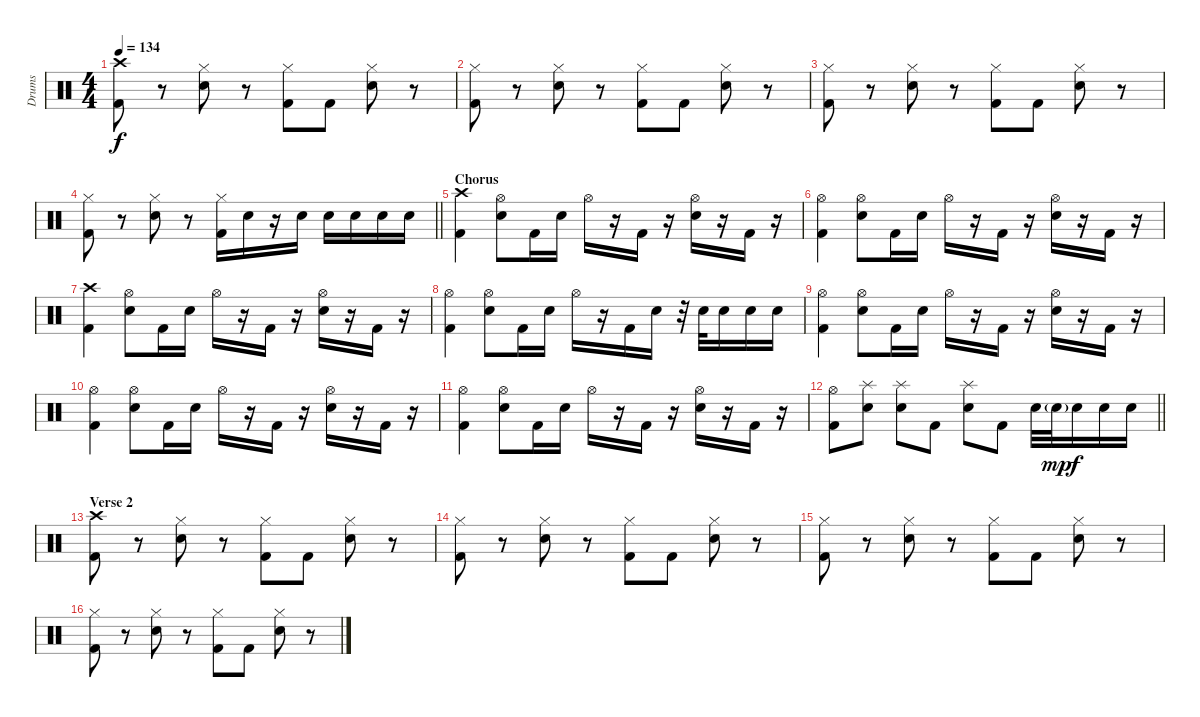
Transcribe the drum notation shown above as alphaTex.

\track ("Drums" "Drums") {instrument percussion}
\staff {score}
\articulation defaults
\ts (4 4)
\tempo 134
\clef neutral
\ks c
("Crash high (hit)" "Kick (hit) 2").8{dy f} r.8 ("Hi-Hat (closed)" "Electric Snare (hit)").8 r.8 ("Hi-Hat (closed)" "Kick (hit) 2").8 "Kick (hit) 2".8 ("Hi-Hat (closed)" "Electric Snare (hit)").8 r.8 |
("Hi-Hat (closed)" "Kick (hit) 2").8 r.8 ("Hi-Hat (closed)" "Electric Snare (hit)").8 r.8 ("Hi-Hat (closed)" "Kick (hit) 2").8 "Kick (hit) 2".8 ("Hi-Hat (closed)" "Electric Snare (hit)").8 r.8 |
("Hi-Hat (closed)" "Kick (hit) 2").8 r.8 ("Hi-Hat (closed)" "Electric Snare (hit)").8 r.8 ("Hi-Hat (closed)" "Kick (hit) 2").8 "Kick (hit) 2".8 ("Hi-Hat (closed)" "Electric Snare (hit)").8 r.8 |
\barLineRight lightlight
("Hi-Hat (closed)" "Kick (hit) 2").8 r.8 ("Hi-Hat (closed)" "Electric Snare (hit)").8 r.8 ("Hi-Hat (closed)" "Kick (hit) 2").16 "Electric Snare (hit)".16 r.16 "Electric Snare (hit)".16 "Electric Snare (hit)".16 "Electric Snare (hit)".16 "Electric Snare (hit)".16 "Electric Snare (hit)".16 |
\section ("" "Chorus")
("Crash high (hit)" "Kick (hit) 2").4 ("Hi-Hat (open)" "Electric Snare (hit)").8 "Kick (hit) 2".16 "Electric Snare (hit)".16 "Hi-Hat (open)".16 r.16 "Kick (hit) 2".16 r.16 ("Hi-Hat (open)" "Electric Snare (hit)").16 r.16 "Kick (hit) 2".16 r.16 |
("Hi-Hat (open)" "Kick (hit) 2").4 ("Hi-Hat (open)" "Electric Snare (hit)").8 "Kick (hit) 2".16 "Electric Snare (hit)".16 "Hi-Hat (open)".16 r.16 "Kick (hit) 2".16 r.16 ("Hi-Hat (open)" "Electric Snare (hit)").16 r.16 "Kick (hit) 2".16 r.16 |
("Crash high (hit)" "Kick (hit) 2").4 ("Hi-Hat (open)" "Electric Snare (hit)").8 "Kick (hit) 2".16 "Electric Snare (hit)".16 "Hi-Hat (open)".16 r.16 "Kick (hit) 2".16 r.16 ("Hi-Hat (open)" "Electric Snare (hit)").16 r.16 "Kick (hit) 2".16 r.16 |
("Hi-Hat (open)" "Kick (hit) 2").4 ("Hi-Hat (open)" "Electric Snare (hit)").8 "Kick (hit) 2".16 "Electric Snare (hit)".16 "Hi-Hat (open)".16 r.16 "Kick (hit) 2".16 "Electric Snare (hit)".16 r.32 "Electric Snare (hit)".32 "Electric Snare (hit)".16 "Electric Snare (hit)".16 "Electric Snare (hit)".16 |
("Hi-Hat (open)" "Kick (hit) 2").4 ("Hi-Hat (open)" "Electric Snare (hit)").8 "Kick (hit) 2".16 "Electric Snare (hit)".16 "Hi-Hat (open)".16 r.16 "Kick (hit) 2".16 r.16 ("Hi-Hat (open)" "Electric Snare (hit)").16 r.16 "Kick (hit) 2".16 r.16 |
("Hi-Hat (open)" "Kick (hit) 2").4 ("Hi-Hat (open)" "Electric Snare (hit)").8 "Kick (hit) 2".16 "Electric Snare (hit)".16 "Hi-Hat (open)".16 r.16 "Kick (hit) 2".16 r.16 ("Hi-Hat (open)" "Electric Snare (hit)").16 r.16 "Kick (hit) 2".16 r.16 |
("Hi-Hat (open)" "Kick (hit) 2").4 ("Hi-Hat (open)" "Electric Snare (hit)").8 "Kick (hit) 2".16 "Electric Snare (hit)".16 "Hi-Hat (open)".16 r.16 "Kick (hit) 2".16 r.16 ("Hi-Hat (open)" "Electric Snare (hit)").16 r.16 "Kick (hit) 2".16 r.16 |
\barLineRight lightlight
("Hi-Hat (open)" "Kick (hit) 2").8 ("Splash (hit)" "Electric Snare (hit)").8 ("Splash (hit)" "Electric Snare (hit)").8 "Kick (hit) 2".8 ("Splash (hit)" "Electric Snare (hit)").8 "Kick (hit) 2".8 "Electric Snare (hit)".32 "Electric Snare (hit)"{g}.32{dy mp} "Electric Snare (hit)".16{dy f} "Electric Snare (hit)".16 "Electric Snare (hit)".16 |
\section ("" "Verse 2")
("Crash high (hit)" "Kick (hit) 2").8 r.8 ("Hi-Hat (closed)" "Electric Snare (hit)").8 r.8 ("Hi-Hat (closed)" "Kick (hit) 2").8 "Kick (hit) 2".8 ("Hi-Hat (closed)" "Electric Snare (hit)").8 r.8 |
("Hi-Hat (closed)" "Kick (hit) 2").8 r.8 ("Hi-Hat (closed)" "Electric Snare (hit)").8 r.8 ("Hi-Hat (closed)" "Kick (hit) 2").8 "Kick (hit) 2".8 ("Hi-Hat (closed)" "Electric Snare (hit)").8 r.8 |
("Hi-Hat (closed)" "Kick (hit) 2").8 r.8 ("Hi-Hat (closed)" "Electric Snare (hit)").8 r.8 ("Hi-Hat (closed)" "Kick (hit) 2").8 "Kick (hit) 2".8 ("Hi-Hat (closed)" "Electric Snare (hit)").8 r.8 |
("Hi-Hat (closed)" "Kick (hit) 2").8 r.8 ("Hi-Hat (closed)" "Electric Snare (hit)").8 r.8 ("Hi-Hat (closed)" "Kick (hit) 2").8 "Kick (hit) 2".8 ("Hi-Hat (closed)" "Electric Snare (hit)").8 r.8
